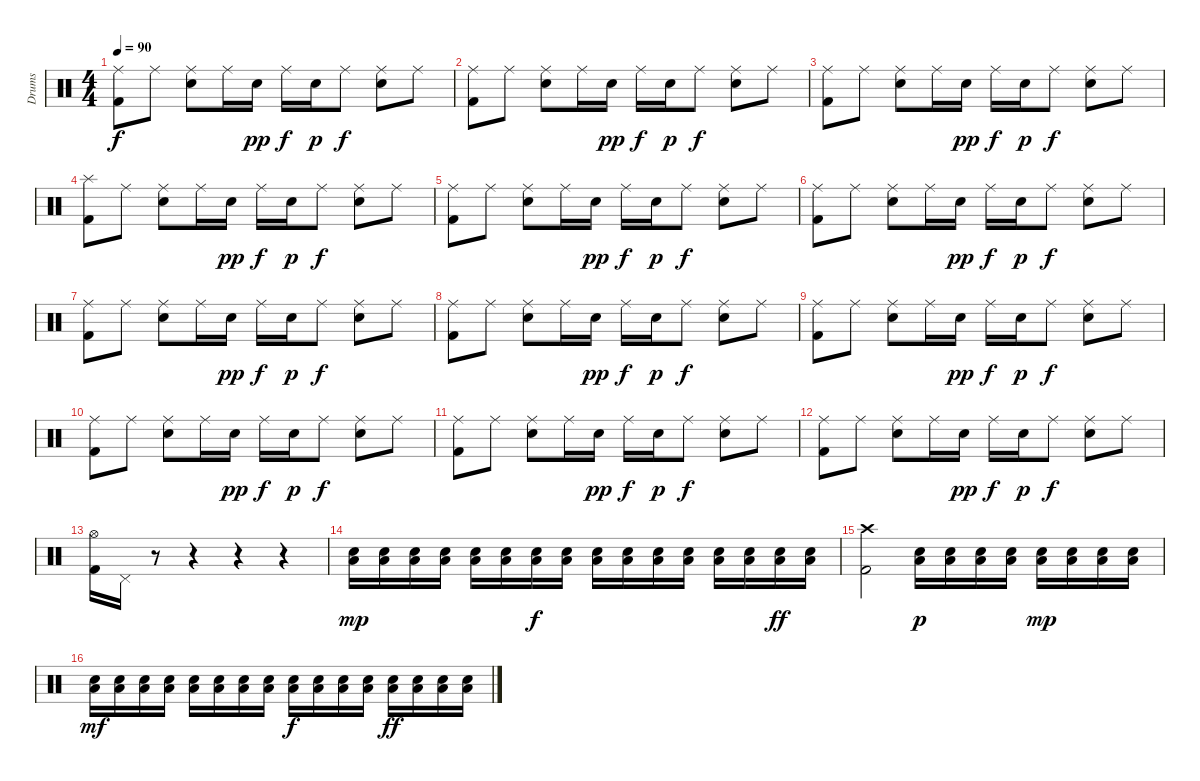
\track ("Drums" "Drums") {instrument percussion}
\staff {score}
\articulation defaults
\ts (4 4)
\tempo 90
\clef neutral
\ks c
("Ride (middle)" "Kick (hit) 2").8{dy f} "Ride (middle)".8 ("Ride (middle)" "Electric Snare (hit)").8 "Ride (middle)".16 "Electric Snare (hit)".16{dy pp} "Ride (middle)".16{dy f} "Electric Snare (hit)".16{dy p} "Ride (middle)".8{dy f} ("Ride (middle)" "Electric Snare (hit)").8 "Ride (middle)".8 |
("Ride (middle)" "Kick (hit) 2").8 "Ride (middle)".8 ("Ride (middle)" "Electric Snare (hit)").8 "Ride (middle)".16 "Electric Snare (hit)".16{dy pp} "Ride (middle)".16{dy f} "Electric Snare (hit)".16{dy p} "Ride (middle)".8{dy f} ("Ride (middle)" "Electric Snare (hit)").8 "Ride (middle)".8 |
("Ride (middle)" "Kick (hit) 2").8 "Ride (middle)".8 ("Ride (middle)" "Electric Snare (hit)").8 "Ride (middle)".16 "Electric Snare (hit)".16{dy pp} "Ride (middle)".16{dy f} "Electric Snare (hit)".16{dy p} "Ride (middle)".8{dy f} ("Ride (middle)" "Electric Snare (hit)").8 "Ride (middle)".8 |
("Splash (hit)" "Kick (hit) 2").8 "Ride (middle)".8 ("Ride (middle)" "Electric Snare (hit)").8 "Ride (middle)".16 "Electric Snare (hit)".16{dy pp} "Ride (middle)".16{dy f} "Electric Snare (hit)".16{dy p} "Ride (middle)".8{dy f} ("Ride (middle)" "Electric Snare (hit)").8 "Ride (middle)".8 |
("Ride (middle)" "Kick (hit) 2").8 "Ride (middle)".8 ("Ride (middle)" "Electric Snare (hit)").8 "Ride (middle)".16 "Electric Snare (hit)".16{dy pp} "Ride (middle)".16{dy f} "Electric Snare (hit)".16{dy p} "Ride (middle)".8{dy f} ("Ride (middle)" "Electric Snare (hit)").8 "Ride (middle)".8 |
("Ride (middle)" "Kick (hit) 2").8 "Ride (middle)".8 ("Ride (middle)" "Electric Snare (hit)").8 "Ride (middle)".16 "Electric Snare (hit)".16{dy pp} "Ride (middle)".16{dy f} "Electric Snare (hit)".16{dy p} "Ride (middle)".8{dy f} ("Ride (middle)" "Electric Snare (hit)").8 "Ride (middle)".8 |
("Ride (middle)" "Kick (hit) 2").8 "Ride (middle)".8 ("Ride (middle)" "Electric Snare (hit)").8 "Ride (middle)".16 "Electric Snare (hit)".16{dy pp} "Ride (middle)".16{dy f} "Electric Snare (hit)".16{dy p} "Ride (middle)".8{dy f} ("Ride (middle)" "Electric Snare (hit)").8 "Ride (middle)".8 |
("Ride (middle)" "Kick (hit) 2").8 "Ride (middle)".8 ("Ride (middle)" "Electric Snare (hit)").8 "Ride (middle)".16 "Electric Snare (hit)".16{dy pp} "Ride (middle)".16{dy f} "Electric Snare (hit)".16{dy p} "Ride (middle)".8{dy f} ("Ride (middle)" "Electric Snare (hit)").8 "Ride (middle)".8 |
("Ride (middle)" "Kick (hit) 2").8 "Ride (middle)".8 ("Ride (middle)" "Electric Snare (hit)").8 "Ride (middle)".16 "Electric Snare (hit)".16{dy pp} "Ride (middle)".16{dy f} "Electric Snare (hit)".16{dy p} "Ride (middle)".8{dy f} ("Ride (middle)" "Electric Snare (hit)").8 "Ride (middle)".8 |
("Ride (middle)" "Kick (hit) 2").8 "Ride (middle)".8 ("Ride (middle)" "Electric Snare (hit)").8 "Ride (middle)".16 "Electric Snare (hit)".16{dy pp} "Ride (middle)".16{dy f} "Electric Snare (hit)".16{dy p} "Ride (middle)".8{dy f} ("Ride (middle)" "Electric Snare (hit)").8 "Ride (middle)".8 |
("Ride (middle)" "Kick (hit) 2").8 "Ride (middle)".8 ("Ride (middle)" "Electric Snare (hit)").8 "Ride (middle)".16 "Electric Snare (hit)".16{dy pp} "Ride (middle)".16{dy f} "Electric Snare (hit)".16{dy p} "Ride (middle)".8{dy f} ("Ride (middle)" "Electric Snare (hit)").8 "Ride (middle)".8 |
("Ride (middle)" "Kick (hit) 2").8 "Ride (middle)".8 ("Ride (middle)" "Electric Snare (hit)").8 "Ride (middle)".16 "Electric Snare (hit)".16{dy pp} "Ride (middle)".16{dy f} "Electric Snare (hit)".16{dy p} "Ride (middle)".8{dy f} ("Ride (middle)" "Electric Snare (hit)").8 "Ride (middle)".8 |
("Hi-Hat (open)" "Kick (hit) 2").16 "Pedal Hi-Hat (hit)".16 r.8 r.4 r.4 r.4 |
("Electric Snare (hit)" "Low Tom (hit)").16{dy mp} ("Electric Snare (hit)" "Low Tom (hit)").16 ("Electric Snare (hit)" "Low Tom (hit)").16 ("Electric Snare (hit)" "Low Tom (hit)").16 ("Electric Snare (hit)" "Low Tom (hit)").16 ("Electric Snare (hit)" "Low Tom (hit)").16 ("Electric Snare (hit)" "Low Tom (hit)").16{dy f} ("Electric Snare (hit)" "Low Tom (hit)").16 ("Electric Snare (hit)" "Low Tom (hit)").16 ("Electric Snare (hit)" "Low Tom (hit)").16 ("Electric Snare (hit)" "Low Tom (hit)").16 ("Electric Snare (hit)" "Low Tom (hit)").16 ("Electric Snare (hit)" "Low Tom (hit)").16 ("Electric Snare (hit)" "Low Tom (hit)").16 ("Electric Snare (hit)" "Low Tom (hit)").16{dy ff} ("Electric Snare (hit)" "Low Tom (hit)").16 |
("Crash high (hit)" "Kick (hit) 2").2 ("Electric Snare (hit)" "Low Tom (hit)").16{dy p} ("Electric Snare (hit)" "Low Tom (hit)").16 ("Electric Snare (hit)" "Low Tom (hit)").16 ("Electric Snare (hit)" "Low Tom (hit)").16 ("Electric Snare (hit)" "Low Tom (hit)").16{dy mp} ("Electric Snare (hit)" "Low Tom (hit)").16 ("Electric Snare (hit)" "Low Tom (hit)").16 ("Electric Snare (hit)" "Low Tom (hit)").16 |
("Electric Snare (hit)" "Low Tom (hit)").16{dy mf} ("Electric Snare (hit)" "Low Tom (hit)").16 ("Electric Snare (hit)" "Low Tom (hit)").16 ("Electric Snare (hit)" "Low Tom (hit)").16 ("Electric Snare (hit)" "Low Tom (hit)").16 ("Electric Snare (hit)" "Low Tom (hit)").16 ("Electric Snare (hit)" "Low Tom (hit)").16 ("Electric Snare (hit)" "Low Tom (hit)").16 ("Electric Snare (hit)" "Low Tom (hit)").16{dy f} ("Electric Snare (hit)" "Low Tom (hit)").16 ("Electric Snare (hit)" "Low Tom (hit)").16 ("Electric Snare (hit)" "Low Tom (hit)").16 ("Electric Snare (hit)" "Low Tom (hit)").16{dy ff} ("Electric Snare (hit)" "Low Tom (hit)").16 ("Electric Snare (hit)" "Low Tom (hit)").16 ("Electric Snare (hit)" "Low Tom (hit)").16
